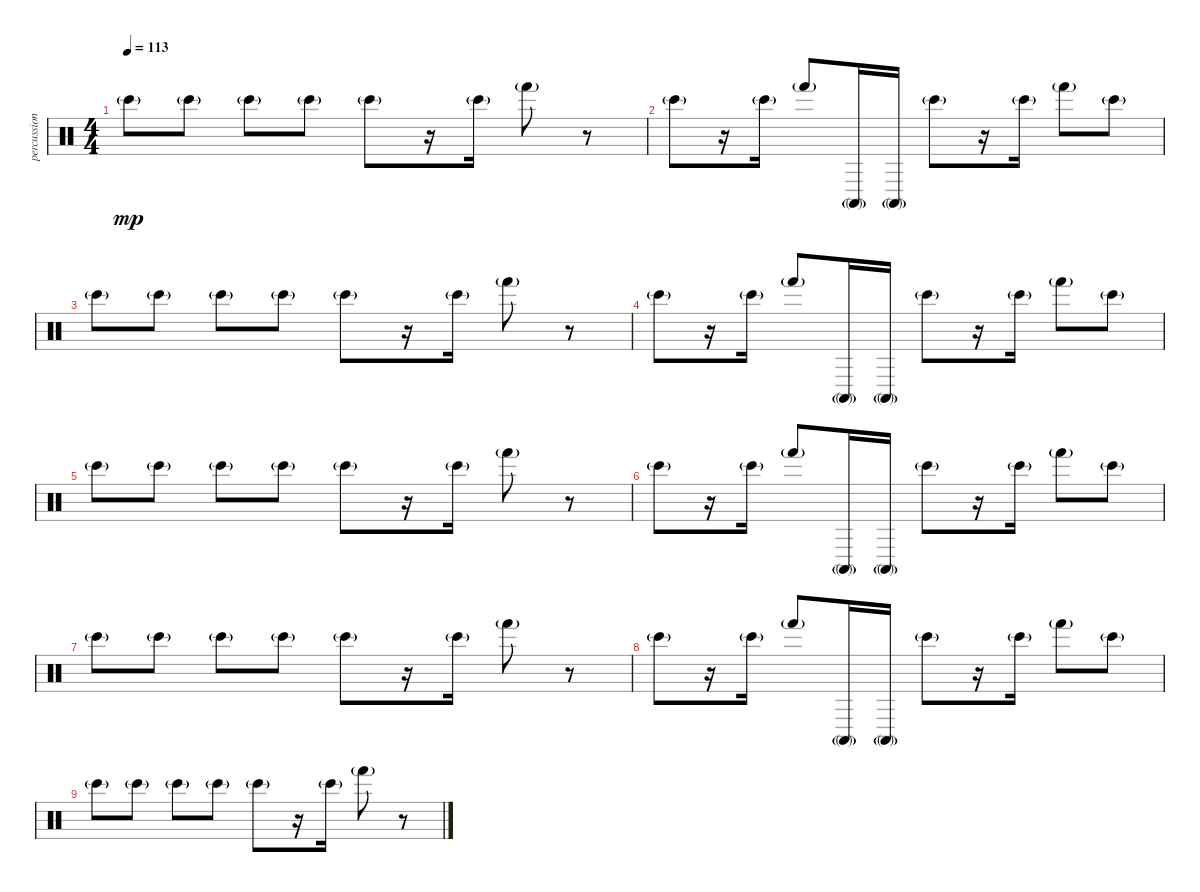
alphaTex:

\track ("percussion" "percussion") {instrument percussion}
\staff {score}
\articulation defaults
\ts (4 4)
\tempo 113
\clef neutral
\ks c "Bongo High (hit)"{g}.8{dy mp} "Bongo High (hit)"{g}.8 "Bongo High (hit)"{g}.8 "Bongo High (hit)"{g}.8 "Bongo High (hit)"{g}.8
r.16 "Bongo High (hit)"{g}.16 "Hand (hit)"{g}.8 r.8 |
"Bongo High (hit)"{g}.8 r.16 "Bongo High (hit)"{g}.16 "Hand (hit)"{g}.8 "Conga high (mute)"{g}.16 "Conga high (mute)"{g}.16 "Bongo High (hit)"{g}.8 r.16 "Bongo High (hit)"{g}.16 "Hand (hit)"{g}.8 "Bongo High (hit)"{g}.8 |
"Bongo High (hit)"{g}.8 "Bongo High (hit)"{g}.8 "Bongo High (hit)"{g}.8 "Bongo High (hit)"{g}.8 "Bongo High (hit)"{g}.8 r.16 "Bongo High (hit)"{g}.16 "Hand (hit)"{g}.8 r.8 |
"Bongo High (hit)"{g}.8 r.16 "Bongo High (hit)"{g}.16 "Hand (hit)"{g}.8 "Conga high (mute)"{g}.16 "Conga high (mute)"{g}.16 "Bongo High (hit)"{g}.8 r.16 "Bongo High (hit)"{g}.16 "Hand (hit)"{g}.8 "Bongo High (hit)"{g}.8 |
"Bongo High (hit)"{g}.8 "Bongo High (hit)"{g}.8 "Bongo High (hit)"{g}.8 "Bongo High (hit)"{g}.8 "Bongo High (hit)"{g}.8 r.16 "Bongo High (hit)"{g}.16 "Hand (hit)"{g}.8 r.8 |
"Bongo High (hit)"{g}.8{volume 0} r.16 "Bongo High (hit)"{g}.16 "Hand (hit)"{g}.8 "Conga high (mute)"{g}.16 "Conga high (mute)"{g}.16 "Bongo High (hit)"{g}.8 r.16 "Bongo High (hit)"{g}.16 "Hand (hit)"{g}.8 "Bongo High (hit)"{g}.8 |
"Bongo High (hit)"{g}.8 "Bongo High (hit)"{g}.8 "Bongo High (hit)"{g}.8 "Bongo High (hit)"{g}.8 "Bongo High (hit)"{g}.8 r.16 "Bongo High (hit)"{g}.16 "Hand (hit)"{g}.8 r.8 |
"Bongo High (hit)"{g}.8 r.16 "Bongo High (hit)"{g}.16 "Hand (hit)"{g}.8 "Conga high (mute)"{g}.16 "Conga high (mute)"{g}.16 "Bongo High (hit)"{g}.8 r.16 "Bongo High (hit)"{g}.16 "Hand (hit)"{g}.8 "Bongo High (hit)"{g}.8 |
"Bongo High (hit)"{g}.8 "Bongo High (hit)"{g}.8 "Bongo High (hit)"{g}.8 "Bongo High (hit)"{g}.8 "Bongo High (hit)"{g}.8 r.16 "Bongo High (hit)"{g}.16 "Hand (hit)"{g}.8 r.8
